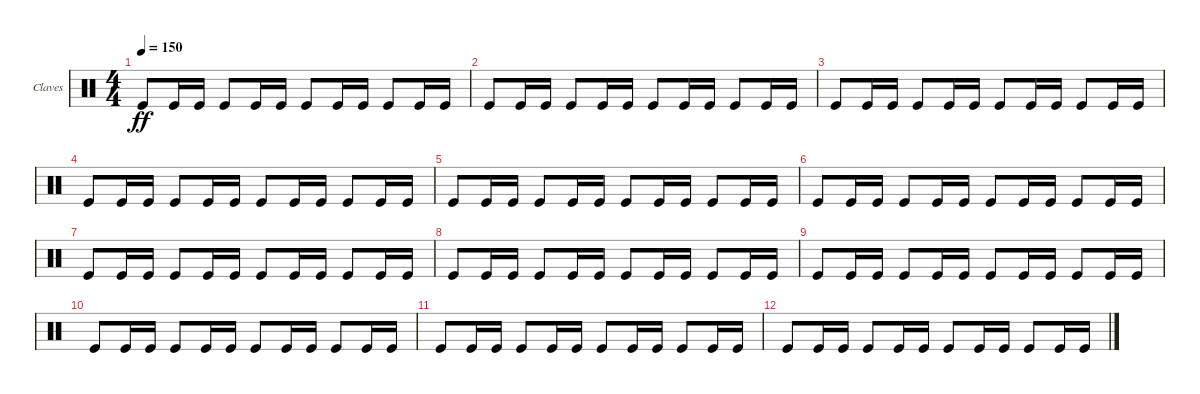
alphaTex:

\defaultSystemsLayout 4
\bracketExtendMode groupsimilarinstruments
\firstSystemTrackNameOrientation horizontal
\otherSystemsTrackNameOrientation horizontal
\track ("Claves" "Claves") {instrument percussion}
\staff {score}
\articulation defaults
\ts (4 4)
\tempo 150
\clef neutral
\scale
0.333333
\ks c "Kick (hit)".8{dy ff} "Kick (hit)".16 "Kick (hit)".16 "Kick (hit)".8 "Kick (hit)".16 "Kick (hit)".16 "Kick (hit)".8 "Kick (hit)".16 "Kick (hit)".16 "Kick (hit)".8 "Kick (hit)".16 "Kick (hit)".16
|
\scale
0.333333 "Kick (hit)".8 "Kick (hit)".16 "Kick (hit)".16 "Kick (hit)".8 "Kick (hit)".16 "Kick (hit)".16 "Kick (hit)".8 "Kick (hit)".16 "Kick (hit)".16 "Kick (hit)".8 "Kick (hit)".16 "Kick (hit)".16 |
\scale
0.333333 "Kick (hit)".8 "Kick (hit)".16 "Kick (hit)".16 "Kick (hit)".8 "Kick (hit)".16 "Kick (hit)".16 "Kick (hit)".8 "Kick (hit)".16 "Kick (hit)".16 "Kick (hit)".8 "Kick (hit)".16 "Kick (hit)".16 |
\scale
0.333333 "Kick (hit)".8 "Kick (hit)".16 "Kick (hit)".16 "Kick (hit)".8 "Kick (hit)".16 "Kick (hit)".16 "Kick (hit)".8 "Kick (hit)".16 "Kick (hit)".16 "Kick (hit)".8 "Kick (hit)".16 "Kick (hit)".16 |
\scale
0.333333 "Kick (hit)".8 "Kick (hit)".16 "Kick (hit)".16 "Kick (hit)".8 "Kick (hit)".16 "Kick (hit)".16 "Kick (hit)".8 "Kick (hit)".16 "Kick (hit)".16 "Kick (hit)".8 "Kick (hit)".16 "Kick (hit)".16 |
\scale
0.333333 "Kick (hit)".8 "Kick (hit)".16 "Kick (hit)".16 "Kick (hit)".8 "Kick (hit)".16 "Kick (hit)".16 "Kick (hit)".8 "Kick (hit)".16 "Kick (hit)".16 "Kick (hit)".8 "Kick (hit)".16 "Kick (hit)".16 |
\scale
0.333333 "Kick (hit)".8 "Kick (hit)".16 "Kick (hit)".16 "Kick (hit)".8 "Kick (hit)".16 "Kick (hit)".16 "Kick (hit)".8 "Kick (hit)".16 "Kick (hit)".16 "Kick (hit)".8 "Kick (hit)".16 "Kick (hit)".16 |
\scale
0.333333 "Kick (hit)".8 "Kick (hit)".16 "Kick (hit)".16 "Kick (hit)".8 "Kick (hit)".16 "Kick (hit)".16 "Kick (hit)".8 "Kick (hit)".16 "Kick (hit)".16 "Kick (hit)".8 "Kick (hit)".16 "Kick (hit)".16 |
\scale
0.333333 "Kick (hit)".8 "Kick (hit)".16 "Kick (hit)".16 "Kick (hit)".8 "Kick (hit)".16 "Kick (hit)".16 "Kick (hit)".8 "Kick (hit)".16 "Kick (hit)".16 "Kick (hit)".8 "Kick (hit)".16 "Kick (hit)".16 |
\scale
0.333333 "Kick (hit)".8 "Kick (hit)".16 "Kick (hit)".16 "Kick (hit)".8 "Kick (hit)".16 "Kick (hit)".16 "Kick (hit)".8 "Kick (hit)".16 "Kick (hit)".16 "Kick (hit)".8 "Kick (hit)".16 "Kick (hit)".16 |
"Kick (hit)".8 "Kick (hit)".16 "Kick (hit)".16 "Kick (hit)".8 "Kick (hit)".16 "Kick (hit)".16 "Kick (hit)".8 "Kick (hit)".16 "Kick (hit)".16 "Kick (hit)".8 "Kick (hit)".16 "Kick (hit)".16 |
"Kick (hit)".8 "Kick (hit)".16 "Kick (hit)".16 "Kick (hit)".8 "Kick (hit)".16 "Kick (hit)".16 "Kick (hit)".8 "Kick (hit)".16 "Kick (hit)".16 "Kick (hit)".8 "Kick (hit)".16 "Kick (hit)".16
